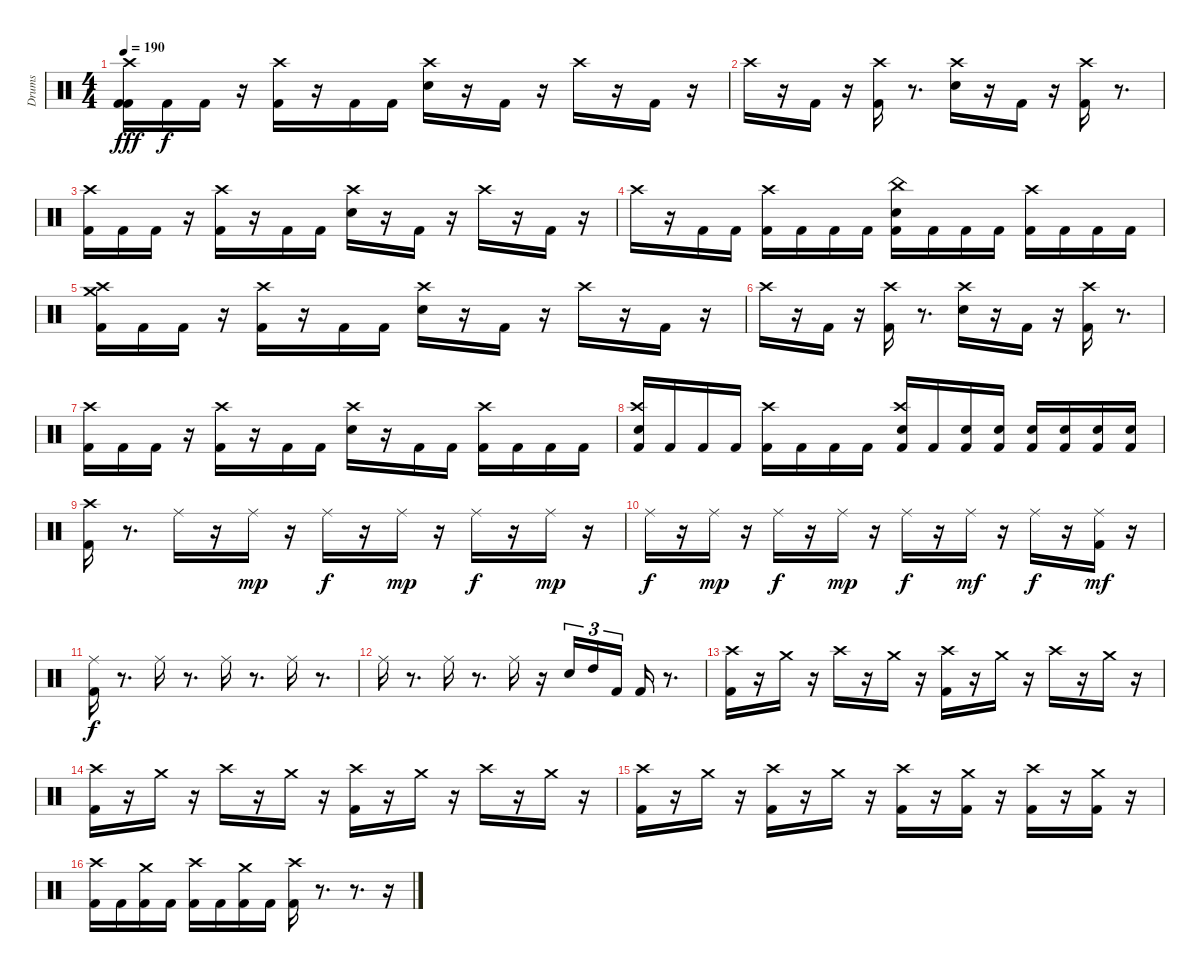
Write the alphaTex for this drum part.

\track ("Drums" "Drums") {instrument percussion}
\staff {score}
\articulation defaults
\ts (4 4)
\tempo 190
\clef neutral
\ks c
("Kick (hit) 2" "Kick (hit) 2" "Crash high (hit)").16{dy fff} "Kick (hit) 2".16{dy f} "Kick (hit) 2".16 r.16 ("Kick (hit) 2" "Crash high (hit)").16 r.16 "Kick (hit) 2".16 "Kick (hit) 2".16 ("Snare (hit) 2" "Crash high (hit)").16 r.16 "Kick (hit) 2".16 r.16 "Crash high (hit)".16 r.16 "Kick (hit) 2".16 r.16 |
"Crash high (hit)".16 r.16 "Kick (hit) 2".16 r.16 ("Kick (hit) 2" "Crash high (hit)").16 r.8{d} ("Snare (hit) 2" "Crash high (hit)").16 r.16 "Kick (hit) 2".16 r.16 ("Kick (hit) 2" "Crash high (hit)").16 r.8{d} |
("Kick (hit) 2" "Crash high (hit)").16 "Kick (hit) 2".16 "Kick (hit) 2".16 r.16 ("Kick (hit) 2" "Crash high (hit)").16 r.16 "Kick (hit) 2".16 "Kick (hit) 2".16 ("Snare (hit) 2" "Crash high (hit)").16 r.16 "Kick (hit) 2".16 r.16 "Crash high (hit)".16 r.16 "Kick (hit) 2".16 r.16 |
"Crash high (hit)".16 r.16 "Kick (hit) 2".16 "Kick (hit) 2".16 ("Kick (hit) 2" "Crash high (hit)").16 "Kick (hit) 2".16 "Kick (hit) 2".16 "Kick (hit) 2".16 ("Kick (hit) 2" "Snare (hit) 2" "China (hit)").16 "Kick (hit) 2".16 "Kick (hit) 2".16 "Kick (hit) 2".16 ("Kick (hit) 2" "Crash high (hit)").16 "Kick (hit) 2".16 "Kick (hit) 2".16 "Kick (hit) 2".16 |
("Kick (hit) 2" "Crash high (hit)" "Crash medium (hit)").16 "Kick (hit) 2".16 "Kick (hit) 2".16 r.16 ("Kick (hit) 2" "Crash high (hit)").16 r.16 "Kick (hit) 2".16 "Kick (hit) 2".16 ("Snare (hit) 2" "Crash high (hit)").16 r.16 "Kick (hit) 2".16 r.16 "Crash high (hit)".16 r.16 "Kick (hit) 2".16 r.16 |
"Crash high (hit)".16 r.16 "Kick (hit) 2".16 r.16 ("Kick (hit) 2" "Crash high (hit)").16 r.8{d} ("Snare (hit) 2" "Crash high (hit)").16 r.16 "Kick (hit) 2".16 r.16 ("Kick (hit) 2" "Crash high (hit)").16 r.8{d} |
("Kick (hit) 2" "Crash high (hit)").16 "Kick (hit) 2".16 "Kick (hit) 2".16 r.16 ("Kick (hit) 2" "Crash high (hit)").16 r.16 "Kick (hit) 2".16 "Kick (hit) 2".16 ("Snare (hit) 2" "Crash high (hit)").16 r.16 "Kick (hit) 2".16 "Kick (hit) 2".16 ("Kick (hit) 2" "Crash high (hit)").16 "Kick (hit) 2".16 "Kick (hit) 2".16 "Kick (hit) 2".16 |
("Kick (hit) 2" "Snare (hit) 2" "Crash high (hit)").16 "Kick (hit) 2".16 "Kick (hit) 2".16 "Kick (hit) 2".16 ("Kick (hit) 2" "Crash high (hit)").16 "Kick (hit) 2".16 "Kick (hit) 2".16 "Kick (hit) 2".16 ("Kick (hit) 2" "Snare (hit) 2" "Crash high (hit)").16 "Kick (hit) 2".16 ("Kick (hit) 2" "Snare (hit) 2").16 ("Kick (hit) 2" "Snare (hit) 2").16 ("Kick (hit) 2" "Snare (hit) 2").16 ("Kick (hit) 2" "Snare (hit) 2").16 ("Kick (hit) 2" "Snare (hit) 2").16 ("Kick (hit) 2" "Snare (hit) 2").16 |
("Kick (hit) 2" "Crash high (hit)").16 r.8{d} "Ride (middle)".16 r.16 "Ride (middle)".16{dy mp} r.16 "Ride (middle)".16{dy f} r.16 "Ride (middle)".16{dy mp} r.16 "Ride (middle)".16{dy f} r.16 "Ride (middle)".16{dy mp} r.16 |
"Ride (middle)".16{dy f} r.16 "Ride (middle)".16{dy mp} r.16 "Ride (middle)".16{dy f} r.16 "Ride (middle)".16{dy mp} r.16 "Ride (middle)".16{dy f} r.16 "Ride (middle)".16{dy mf} r.16 "Ride (middle)".16{dy f} r.16 ("Kick (hit) 2" "Ride (middle)").16{dy mf} r.16 |
("Kick (hit) 2" "Ride (middle)").16{dy f} r.8{d} "Ride (middle)".16 r.8{d} "Ride (middle)".16 r.8{d} "Ride (middle)".16 r.8{d} |
"Ride (middle)".16 r.8{d} "Ride (middle)".16 r.8{d} "Ride (middle)".16 r.16 "Snare (hit) 2".16{tu (3 2)} "High Tom (hit)".16{tu (3 2)} "Kick (hit) 2".16{tu (3 2)} "Kick (hit) 2".16 r.8{d} |
("Kick (hit) 2" "Crash high (hit)").16 r.16 "Crash medium (hit)".16 r.16 "Crash high (hit)".16 r.16 "Crash medium (hit)".16 r.16 ("Kick (hit) 2" "Crash high (hit)").16 r.16 "Crash medium (hit)".16 r.16 "Crash high (hit)".16 r.16 "Crash medium (hit)".16 r.16 |
("Kick (hit) 2" "Crash high (hit)").16 r.16 "Crash medium (hit)".16 r.16 "Crash high (hit)".16 r.16 "Crash medium (hit)".16 r.16 ("Kick (hit) 2" "Crash high (hit)").16 r.16 "Crash medium (hit)".16 r.16 "Crash high (hit)".16 r.16 "Crash medium (hit)".16 r.16 |
("Kick (hit) 2" "Crash high (hit)").16 r.16 "Crash medium (hit)".16 r.16 ("Kick (hit) 2" "Crash high (hit)").16 r.16 "Crash medium (hit)".16 r.16 ("Kick (hit) 2" "Crash high (hit)").16 r.16 ("Kick (hit) 2" "Crash medium (hit)").16 r.16 ("Kick (hit) 2" "Crash high (hit)").16 r.16 ("Kick (hit) 2" "Crash medium (hit)").16 r.16 |
("Kick (hit) 2" "Crash high (hit)").16 "Kick (hit) 2".16 ("Kick (hit) 2" "Crash medium (hit)").16 "Kick (hit) 2".16 ("Kick (hit) 2" "Crash high (hit)").16 "Kick (hit) 2".16 ("Kick (hit) 2" "Crash medium (hit)").16 "Kick (hit) 2".16 ("Kick (hit) 2" "Crash high (hit)").16 r.8{d} r.8{d} r.16
